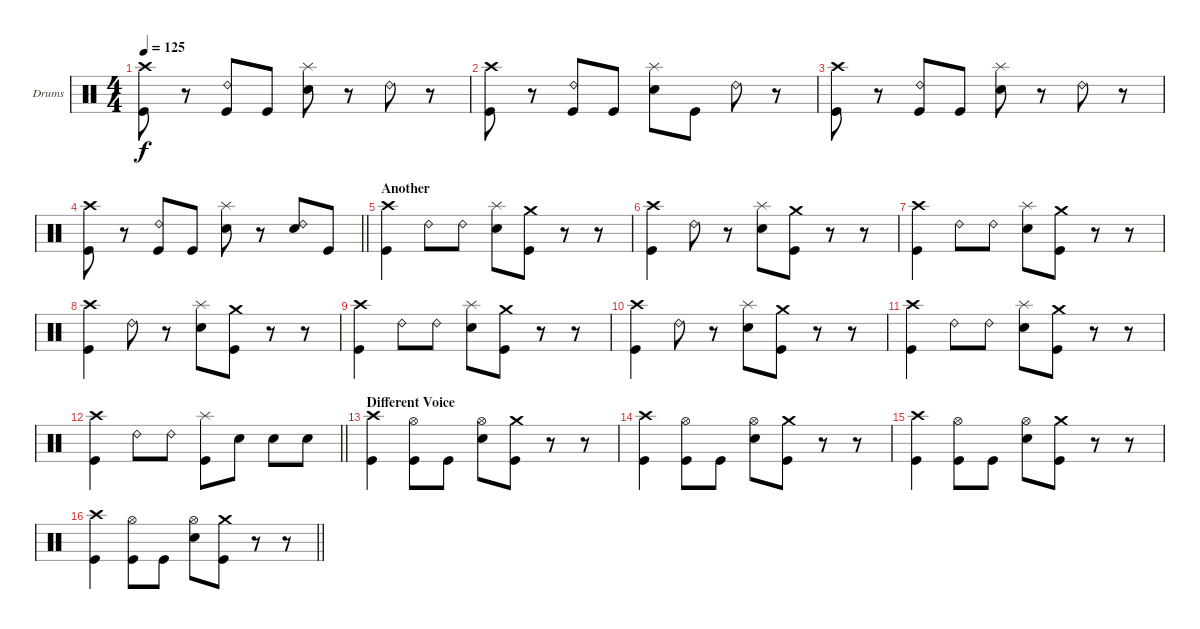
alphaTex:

\bracketExtendMode groupsimilarinstruments
\firstSystemTrackNameOrientation horizontal
\otherSystemsTrackNameOrientation horizontal
\track ("Drumkit" "Drums") {instrument percussion}
\staff {score}
\articulation defaults
\ts (4 4)
\tempo 125
\clef neutral
\ks c
("Crash high (hit)" "Kick (hit)").8{dy f} r.8 ("Ride (bell) 2" "Kick (hit)").8 "Kick (hit)".8 ("Splash (hit)" "Snare (hit) 2").8 r.8 "Ride (bell) 2".8 r.8 |
("Crash high (hit)" "Kick (hit)").8 r.8 ("Ride (bell) 2" "Kick (hit)").8 "Kick (hit)".8 ("Splash (hit)" "Snare (hit) 2").8 "Kick (hit)".8 "Ride (bell) 2".8 r.8 |
("Crash high (hit)" "Kick (hit)").8 r.8 ("Ride (bell) 2" "Kick (hit)").8 "Kick (hit)".8 ("Splash (hit)" "Snare (hit) 2").8 r.8 "Ride (bell) 2".8 r.8 |
\barLineRight lightlight
("Crash high (hit)" "Kick (hit)").8 r.8 ("Ride (bell) 2" "Kick (hit)").8 "Kick (hit)".8 ("Splash (hit)" "Snare (hit) 2").8 r.8 ("Ride (bell) 2" "Snare (hit) 2").8 "Kick (hit)".8 |
\section ("" "Another")
("Crash high (hit)" "Kick (hit)").4 "Ride (bell) 2".8 "Ride (bell) 2".8 ("Splash (hit)" "Snare (hit) 2").8 ("Crash medium (hit)" "Kick (hit)").8 r.8 r.8 |
("Crash high (hit)" "Kick (hit)").4 "Ride (bell) 2".8 r.8 ("Splash (hit)" "Snare (hit) 2").8 ("Crash medium (hit)" "Kick (hit)").8 r.8 r.8 |
("Crash high (hit)" "Kick (hit)").4 "Ride (bell) 2".8 "Ride (bell) 2".8 ("Splash (hit)" "Snare (hit) 2").8 ("Crash medium (hit)" "Kick (hit)").8 r.8 r.8 |
("Crash high (hit)" "Kick (hit)").4 "Ride (bell) 2".8 r.8 ("Splash (hit)" "Snare (hit) 2").8 ("Crash medium (hit)" "Kick (hit)").8 r.8 r.8 |
("Crash high (hit)" "Kick (hit)").4 "Ride (bell) 2".8 "Ride (bell) 2".8 ("Splash (hit)" "Snare (hit) 2").8 ("Crash medium (hit)" "Kick (hit)").8 r.8 r.8 |
("Crash high (hit)" "Kick (hit)").4 "Ride (bell) 2".8 r.8 ("Splash (hit)" "Snare (hit) 2").8 ("Crash medium (hit)" "Kick (hit)").8 r.8 r.8 |
("Crash high (hit)" "Kick (hit)").4 "Ride (bell) 2".8 "Ride (bell) 2".8 ("Splash (hit)" "Snare (hit) 2").8 ("Crash medium (hit)" "Kick (hit)").8 r.8 r.8 |
\barLineRight lightlight
("Crash high (hit)" "Kick (hit)").4 "Ride (bell) 2".8 "Ride (bell) 2".8 ("Splash (hit)" "Kick (hit)").8 "Snare (hit) 2".8 "Snare (hit) 2".8 "Snare (hit) 2".8 |
\section ("" "Different Voice")
("Crash high (hit)" "Kick (hit)").4 ("Hi-Hat (open)" "Kick (hit)").8 "Kick (hit)".8 ("Hi-Hat (open)" "Snare (hit) 2").8 ("Crash medium (hit)" "Kick (hit)").8 r.8 r.8 |
("Crash high (hit)" "Kick (hit)").4 ("Hi-Hat (open)" "Kick (hit)").8 "Kick (hit)".8 ("Hi-Hat (open)" "Snare (hit) 2").8 ("Crash medium (hit)" "Kick (hit)").8 r.8 r.8 |
("Crash high (hit)" "Kick (hit)").4 ("Hi-Hat (open)" "Kick (hit)").8 "Kick (hit)".8 ("Hi-Hat (open)" "Snare (hit) 2").8 ("Crash medium (hit)" "Kick (hit)").8 r.8 r.8 |
\barLineRight lightlight
("Crash high (hit)" "Kick (hit)").4 ("Hi-Hat (open)" "Kick (hit)").8 "Kick (hit)".8 ("Hi-Hat (open)" "Snare (hit) 2").8 ("Crash medium (hit)" "Kick (hit)").8 r.8 r.8
